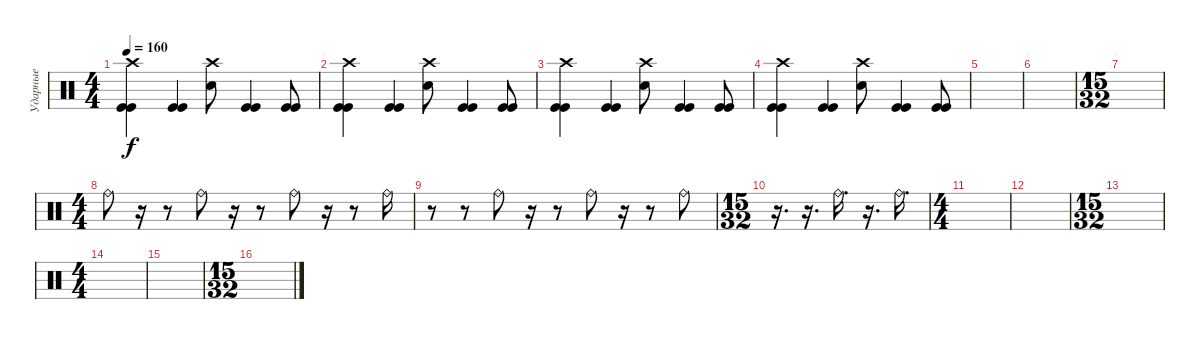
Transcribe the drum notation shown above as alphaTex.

\track ("Ударные" "Ударные") {instrument percussion}
\staff {score}
\articulation defaults
\ts (4 4)
\tempo 160
\clef neutral
\ks c
("Crash high (hit)" "Kick (hit)" "Kick (hit)").4{dy f} ("Kick (hit)" "Kick (hit)").4 ("Crash high (hit)" "Electric Snare (hit)").8 ("Kick (hit)" "Kick (hit)").4 ("Kick (hit)" "Kick (hit)").8 |
("Crash high (hit)" "Kick (hit)" "Kick (hit)").4 ("Kick (hit)" "Kick (hit)").4 ("Crash high (hit)" "Electric Snare (hit)").8 ("Kick (hit)" "Kick (hit)").4 ("Kick (hit)" "Kick (hit)").8 |
("Crash high (hit)" "Kick (hit)" "Kick (hit)").4 ("Kick (hit)" "Kick (hit)").4 ("Crash high (hit)" "Electric Snare (hit)").8 ("Kick (hit)" "Kick (hit)").4 ("Kick (hit)" "Kick (hit)").8 |
("Crash high (hit)" "Kick (hit)" "Kick (hit)").4 ("Kick (hit)" "Kick (hit)").4 ("Crash high (hit)" "Electric Snare (hit)").8 ("Kick (hit)" "Kick (hit)").4 ("Kick (hit)" "Kick (hit)").8 |
|
|
\ts (15 32)
|
\ts (4 4)
"Ride (bell)".8 r.16 r.8 "Ride (bell)".8 r.16 r.8 "Ride (bell)".8 r.16 r.8 "Ride (bell)".16 |
r.8 r.8 "Ride (bell)".8 r.16 r.8 "Ride (bell)".8 r.16 r.8 "Ride (bell)".8 |
\ts (15 32)
r.16{d} r.16{d} "Ride (bell)".16{d} r.16{d} "Ride (bell)".16{d} |
\ts (4 4)
|
|
\ts (15 32)
|
\ts (4 4)
|
|
\ts (15 32)
